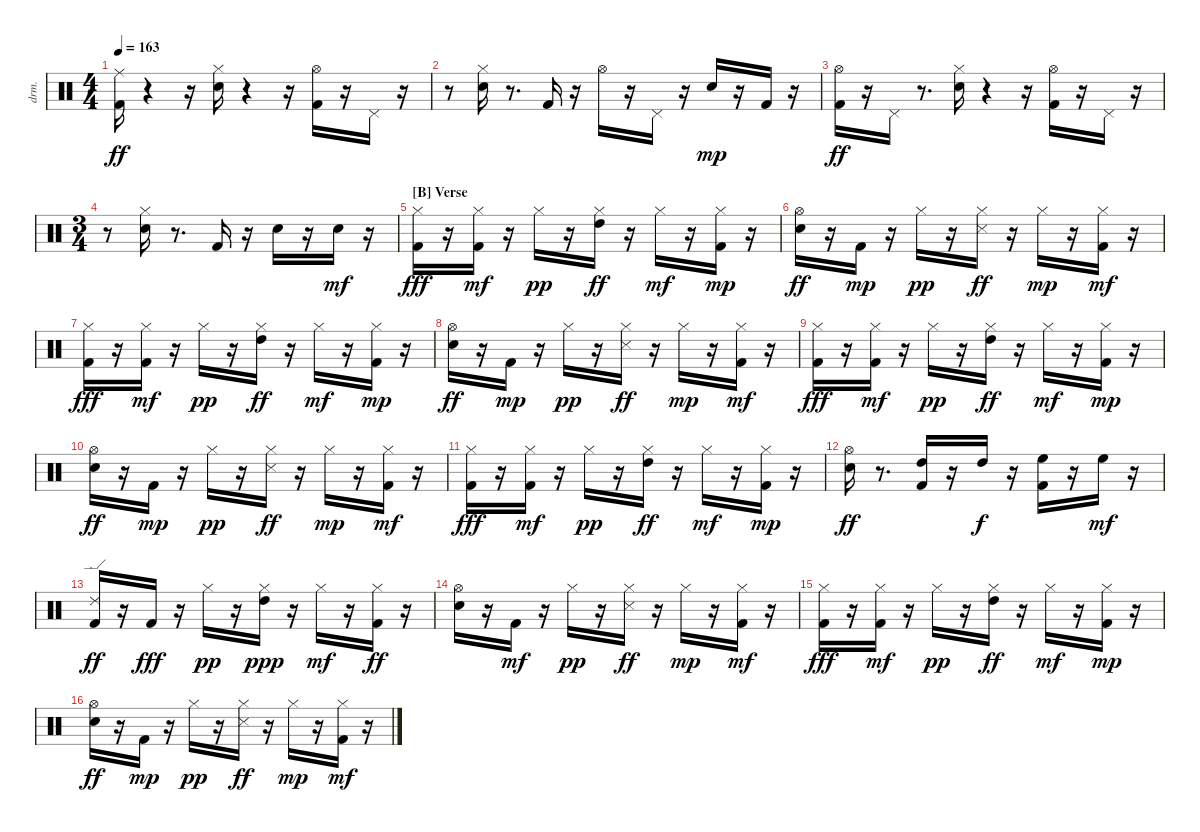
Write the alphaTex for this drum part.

\bracketExtendMode nobrackets
\track ("EZdrummer 3" "drm.") {instrument percussion}
\staff {score}
\articulation defaults
\ts (4 4)
\tempo 163
\clef neutral
\ks aminor
("Kick (hit) 2" "Ride (middle)"{acc #}).16{dy ff} r.4 r.16 ("Snare (hit) 2" "Hi-Hat (closed)"{acc #}).16 r.4 r.16 ("Kick (hit) 2" "Hi-Hat (open)"{acc #}).16 r.16 "Pedal Hi-Hat (hit)"{acc #}.16 r.16 |
r.8 ("Snare (hit) 2" "Hi-Hat (closed)"{acc #}).16 r.8{d} "Kick (hit) 2".16 r.16 "Hi-Hat (open)"{acc #}.16 r.16 "Pedal Hi-Hat (hit)"{acc #}.16 r.16 "Snare (hit) 2".16{dy mp} r.16 "Kick (hit) 2".16 r.16 |
("Kick (hit) 2" "Hi-Hat (open)"{acc #}).16{dy ff} r.16 "Pedal Hi-Hat (hit)"{acc #}.16 r.8{d} ("Snare (hit) 2" "Hi-Hat (closed)"{acc #}).16 r.4 r.16 ("Kick (hit) 2" "Hi-Hat (open)"{acc #}).16 r.16 "Pedal Hi-Hat (hit)"{acc #}.16 r.16 |
\ts (3 4)
r.8 ("Snare (hit) 2" "Hi-Hat (closed)"{acc #}).16 r.8{d} "Kick (hit) 2".16 r.16 "Snare (hit) 2".16 r.16 "Snare (hit) 2".16{dy mf} r.16 |
\section ("B" "Verse")
("Kick (hit) 2" "Hi-Hat (closed)"{acc #}).16{dy fff} r.16 ("Kick (hit) 2" "Hi-Hat (closed)"{acc #}).16{dy mf} r.16 "Hi-Hat (closed)"{acc #}.16{dy pp} r.16 ("Hi-Hat (closed)"{acc #} "High Tom (hit)").16{dy ff} r.16 "Hi-Hat (closed)"{acc #}.16{dy mf} r.16 ("Kick (hit) 2" "Hi-Hat (closed)"{acc #}).16{dy mp} r.16 |
("Snare (hit) 2" "Hi-Hat (open)"{acc #}).16{dy ff} r.16 "Kick (hit) 2".16{dy mp} r.16 "Hi-Hat (closed)"{acc #}.16{dy pp} r.16 ("Snare (side stick) 3"{acc #} "Hi-Hat (closed)"{acc #}).16{dy ff} r.16 "Hi-Hat (closed)"{acc #}.16{dy mp} r.16 ("Kick (hit) 2" "Hi-Hat (closed)"{acc #}).16{dy mf} r.16 |
("Kick (hit) 2" "Hi-Hat (closed)"{acc #}).16{dy fff} r.16 ("Kick (hit) 2" "Hi-Hat (closed)"{acc #}).16{dy mf} r.16 "Hi-Hat (closed)"{acc #}.16{dy pp} r.16 ("Hi-Hat (closed)"{acc #} "High Tom (hit)").16{dy ff} r.16 "Hi-Hat (closed)"{acc #}.16{dy mf} r.16 ("Kick (hit) 2" "Hi-Hat (closed)"{acc #}).16{dy mp} r.16 |
("Snare (hit) 2" "Hi-Hat (open)"{acc #}).16{dy ff} r.16 "Kick (hit) 2".16{dy mp} r.16 "Hi-Hat (closed)"{acc #}.16{dy pp} r.16 ("Snare (side stick) 3"{acc #} "Hi-Hat (closed)"{acc #}).16{dy ff} r.16 "Hi-Hat (closed)"{acc #}.16{dy mp} r.16 ("Kick (hit) 2" "Hi-Hat (closed)"{acc #}).16{dy mf} r.16 |
("Kick (hit) 2" "Hi-Hat (closed)"{acc #}).16{dy fff} r.16 ("Kick (hit) 2" "Hi-Hat (closed)"{acc #}).16{dy mf} r.16 "Hi-Hat (closed)"{acc #}.16{dy pp} r.16 ("Hi-Hat (closed)"{acc #} "High Tom (hit)").16{dy ff} r.16 "Hi-Hat (closed)"{acc #}.16{dy mf} r.16 ("Kick (hit) 2" "Hi-Hat (closed)"{acc #}).16{dy mp} r.16 |
("Snare (hit) 2" "Hi-Hat (open)"{acc #}).16{dy ff} r.16 "Kick (hit) 2".16{dy mp} r.16 "Hi-Hat (closed)"{acc #}.16{dy pp} r.16 ("Snare (side stick) 3"{acc #} "Hi-Hat (closed)"{acc #}).16{dy ff} r.16 "Hi-Hat (closed)"{acc #}.16{dy mp} r.16 ("Kick (hit) 2" "Hi-Hat (closed)"{acc #}).16{dy mf} r.16 |
("Kick (hit) 2" "Hi-Hat (closed)"{acc #}).16{dy fff} r.16 ("Kick (hit) 2" "Hi-Hat (closed)"{acc #}).16{dy mf} r.16 "Hi-Hat (closed)"{acc #}.16{dy pp} r.16 ("Hi-Hat (closed)"{acc #} "High Tom (hit)").16{dy ff} r.16 "Hi-Hat (closed)"{acc #}.16{dy mf} r.16 ("Kick (hit) 2" "Hi-Hat (closed)"{acc #}).16{dy mp} r.16 |
("Snare (hit) 2" "Hi-Hat (open)"{acc #}).16{dy ff} r.8{d} ("Kick (hit) 2" "High Tom (hit)").16 r.16 "High Tom (hit)".16{dy f} r.16 ("Kick (hit) 2" "High Floor Tom (hit)").16 r.16 "High Floor Tom (hit)".16{dy mf} r.16 |
("Kick (hit) 2" "Ride (edge) 2").16{dy ff} r.16 "Kick (hit) 2".16{dy fff} r.16 "Hi-Hat (closed)"{acc #}.16{dy pp} r.16 ("Hi-Hat (closed)"{acc #} "High Tom (hit)").16{dy ppp} r.16 "Hi-Hat (closed)"{acc #}.16{dy mf} r.16 ("Kick (hit) 2" "Hi-Hat (closed)"{acc #}).16{dy ff} r.16 |
("Snare (hit) 2" "Hi-Hat (open)"{acc #}).16 r.16 "Kick (hit) 2".16{dy mf} r.16 "Hi-Hat (closed)"{acc #}.16{dy pp} r.16 ("Snare (side stick) 3"{acc #} "Hi-Hat (closed)"{acc #}).16{dy ff} r.16 "Hi-Hat (closed)"{acc #}.16{dy mp} r.16 ("Kick (hit) 2" "Hi-Hat (closed)"{acc #}).16{dy mf} r.16 |
("Kick (hit) 2" "Hi-Hat (closed)"{acc #}).16{dy fff} r.16 ("Kick (hit) 2" "Hi-Hat (closed)"{acc #}).16{dy mf} r.16 "Hi-Hat (closed)"{acc #}.16{dy pp} r.16 ("Hi-Hat (closed)"{acc #} "High Tom (hit)").16{dy ff} r.16 "Hi-Hat (closed)"{acc #}.16{dy mf} r.16 ("Kick (hit) 2" "Hi-Hat (closed)"{acc #}).16{dy mp} r.16 |
("Snare (hit) 2" "Hi-Hat (open)"{acc #}).16{dy ff} r.16 "Kick (hit) 2".16{dy mp} r.16 "Hi-Hat (closed)"{acc #}.16{dy pp} r.16 ("Snare (side stick) 3"{acc #} "Hi-Hat (closed)"{acc #}).16{dy ff} r.16 "Hi-Hat (closed)"{acc #}.16{dy mp} r.16 ("Kick (hit) 2" "Hi-Hat (closed)"{acc #}).16{dy mf} r.16
